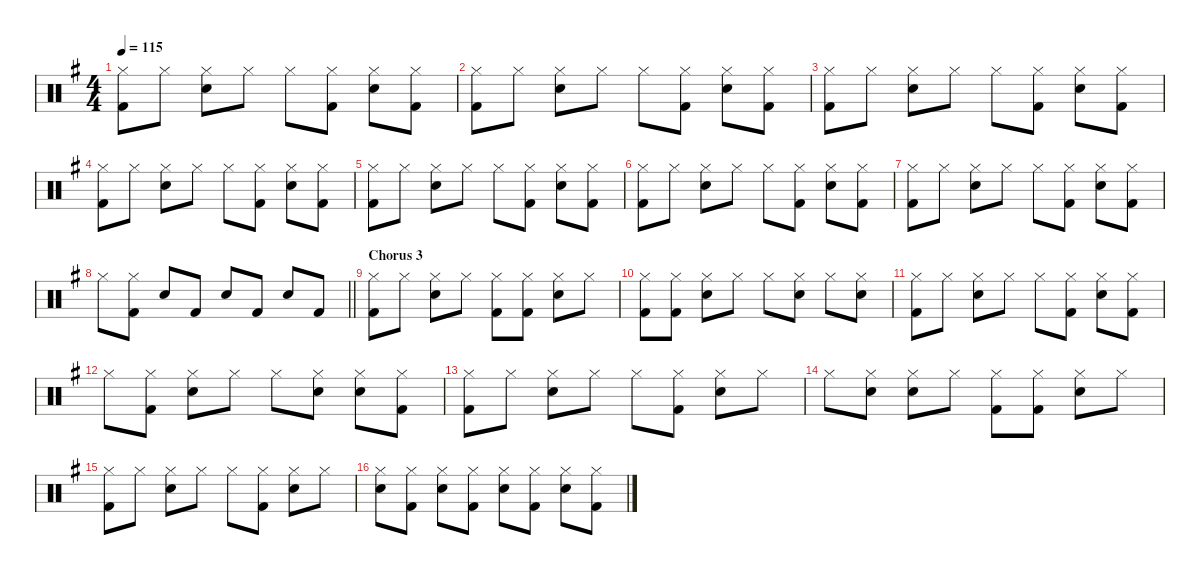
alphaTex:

\defaultSystemsLayout 8
\hideDynamics
\bracketExtendMode nobrackets
\singleTrackTrackNamePolicy hidden
\multiTrackTrackNamePolicy hidden
\otherSystemsTrackNameOrientation horizontal
\track ("Drums" "drm.") {defaultSystemsLayout 4 instrument percussion}
\staff {score}
\articulation defaults
\ts (4 4)
\tempo 115
\clef neutral
\ks g
("Hi-Hat (closed)"{acc forcenatural} "Kick (hit) 2"{acc forcenatural}).8{dy f beam Down} "Hi-Hat (closed)"{acc forcenatural}.8{beam Down} ("Hi-Hat (closed)"{acc forcenatural} "Snare (hit) 2"{acc forcenatural}).8{beam Down} "Hi-Hat (closed)"{acc forcenatural}.8{beam Down} "Hi-Hat (closed)"{acc forcenatural}.8{beam Down} ("Hi-Hat (closed)"{acc forcenatural} "Kick (hit) 2"{acc forcenatural}).8{beam Down} ("Hi-Hat (closed)"{acc forcenatural} "Snare (hit) 2"{acc forcenatural}).8{beam Down} ("Hi-Hat (closed)"{acc forcenatural} "Kick (hit) 2"{acc forcenatural}).8{beam Down} |
("Hi-Hat (closed)"{acc forcenatural} "Kick (hit) 2"{acc forcenatural}).8{beam Down} "Hi-Hat (closed)"{acc forcenatural}.8{beam Down} ("Hi-Hat (closed)"{acc forcenatural} "Snare (hit) 2"{acc forcenatural}).8{beam Down} "Hi-Hat (closed)"{acc forcenatural}.8{beam Down} "Hi-Hat (closed)"{acc forcenatural}.8{beam Down} ("Hi-Hat (closed)"{acc forcenatural} "Kick (hit) 2"{acc forcenatural}).8{beam Down} ("Hi-Hat (closed)"{acc forcenatural} "Snare (hit) 2"{acc forcenatural}).8{beam Down} ("Hi-Hat (closed)"{acc forcenatural} "Kick (hit) 2"{acc forcenatural}).8{beam Down} |
("Hi-Hat (closed)"{acc forcenatural} "Kick (hit) 2"{acc forcenatural}).8{beam Down} "Hi-Hat (closed)"{acc forcenatural}.8{beam Down} ("Hi-Hat (closed)"{acc forcenatural} "Snare (hit) 2"{acc forcenatural}).8{beam Down} "Hi-Hat (closed)"{acc forcenatural}.8{beam Down} "Hi-Hat (closed)"{acc forcenatural}.8{beam Down} ("Hi-Hat (closed)"{acc forcenatural} "Kick (hit) 2"{acc forcenatural}).8{beam Down} ("Hi-Hat (closed)"{acc forcenatural} "Snare (hit) 2"{acc forcenatural}).8{beam Down} ("Hi-Hat (closed)"{acc forcenatural} "Kick (hit) 2"{acc forcenatural}).8{beam Down} |
("Hi-Hat (closed)"{acc forcenatural} "Kick (hit) 2"{acc forcenatural}).8{beam Down} "Hi-Hat (closed)"{acc forcenatural}.8{beam Down} ("Hi-Hat (closed)"{acc forcenatural} "Snare (hit) 2"{acc forcenatural}).8{beam Down} "Hi-Hat (closed)"{acc forcenatural}.8{beam Down} "Hi-Hat (closed)"{acc forcenatural}.8{beam Down} ("Hi-Hat (closed)"{acc forcenatural} "Kick (hit) 2"{acc forcenatural}).8{beam Down} ("Hi-Hat (closed)"{acc forcenatural} "Snare (hit) 2"{acc forcenatural}).8{beam Down} ("Hi-Hat (closed)"{acc forcenatural} "Kick (hit) 2"{acc forcenatural}).8{beam Down} |
("Hi-Hat (closed)"{acc forcenatural} "Kick (hit) 2"{acc forcenatural}).8{beam Down} "Hi-Hat (closed)"{acc forcenatural}.8{beam Down} ("Hi-Hat (closed)"{acc forcenatural} "Snare (hit) 2"{acc forcenatural}).8{beam Down} "Hi-Hat (closed)"{acc forcenatural}.8{beam Down} "Hi-Hat (closed)"{acc forcenatural}.8{beam Down} ("Hi-Hat (closed)"{acc forcenatural} "Kick (hit) 2"{acc forcenatural}).8{beam Down} ("Hi-Hat (closed)"{acc forcenatural} "Snare (hit) 2"{acc forcenatural}).8{beam Down} ("Hi-Hat (closed)"{acc forcenatural} "Kick (hit) 2"{acc forcenatural}).8{beam Down} |
("Hi-Hat (closed)"{acc forcenatural} "Kick (hit) 2"{acc forcenatural}).8{beam Down} "Hi-Hat (closed)"{acc forcenatural}.8{beam Down} ("Hi-Hat (closed)"{acc forcenatural} "Snare (hit) 2"{acc forcenatural}).8{beam Down} "Hi-Hat (closed)"{acc forcenatural}.8{beam Down} "Hi-Hat (closed)"{acc forcenatural}.8{beam Down} ("Hi-Hat (closed)"{acc forcenatural} "Kick (hit) 2"{acc forcenatural}).8{beam Down} ("Hi-Hat (closed)"{acc forcenatural} "Snare (hit) 2"{acc forcenatural}).8{beam Down} ("Hi-Hat (closed)"{acc forcenatural} "Kick (hit) 2"{acc forcenatural}).8{beam Down} |
("Hi-Hat (closed)"{acc forcenatural} "Kick (hit) 2"{acc forcenatural}).8{beam Down} "Hi-Hat (closed)"{acc forcenatural}.8{beam Down} ("Hi-Hat (closed)"{acc forcenatural} "Snare (hit) 2"{acc forcenatural}).8{beam Down} "Hi-Hat (closed)"{acc forcenatural}.8{beam Down} "Hi-Hat (closed)"{acc forcenatural}.8{beam Down} ("Hi-Hat (closed)"{acc forcenatural} "Kick (hit) 2"{acc forcenatural}).8{beam Down} ("Hi-Hat (closed)"{acc forcenatural} "Snare (hit) 2"{acc forcenatural}).8{beam Down} ("Hi-Hat (closed)"{acc forcenatural} "Kick (hit) 2"{acc forcenatural}).8{beam Down} |
\barLineRight lightlight "Hi-Hat (closed)"{acc forcenatural}.8{beam Down}
("Hi-Hat (closed)"{acc forcenatural} "Kick (hit) 2"{acc forcenatural}).8{beam Down} "Snare (hit) 2"{acc forcenatural}.8{beam Up} "Kick (hit) 2"{acc forcenatural}.8{beam Up} "Snare (hit) 2"{acc forcenatural}.8{beam Up} "Kick (hit) 2"{acc forcenatural}.8{beam Up} "Snare (hit) 2"{acc forcenatural}.8{beam Up} "Kick (hit) 2"{acc forcenatural}.8{beam Up} |
\section ("" "Chorus 3")
("Hi-Hat (closed)"{acc forcenatural} "Kick (hit) 2"{acc forcenatural}).8{beam Down} "Hi-Hat (closed)"{acc forcenatural}.8{beam Down} ("Hi-Hat (closed)"{acc forcenatural} "Snare (hit) 2"{acc forcenatural}).8{beam Down} "Hi-Hat (closed)"{acc forcenatural}.8{beam Down} ("Hi-Hat (closed)"{acc forcenatural} "Kick (hit) 2"{acc forcenatural}).8{beam Down} ("Hi-Hat (closed)"{acc forcenatural} "Kick (hit) 2"{acc forcenatural}).8{beam Down} ("Hi-Hat (closed)"{acc forcenatural} "Snare (hit) 2"{acc forcenatural}).8{beam Down} "Hi-Hat (closed)"{acc forcenatural}.8{beam Down} |
("Hi-Hat (closed)"{acc forcenatural} "Kick (hit) 2"{acc forcenatural}).8{beam Down} ("Hi-Hat (closed)"{acc forcenatural} "Kick (hit) 2"{acc forcenatural}).8{beam Down} ("Hi-Hat (closed)"{acc forcenatural} "Snare (hit) 2"{acc forcenatural}).8{beam Down} "Hi-Hat (closed)"{acc forcenatural}.8{beam Down} "Hi-Hat (closed)"{acc forcenatural}.8{beam Down} ("Hi-Hat (closed)"{acc forcenatural} "Snare (hit) 2"{acc forcenatural}).8{beam Down} "Hi-Hat (closed)"{acc forcenatural}.8{beam Down} ("Hi-Hat (closed)"{acc forcenatural} "Snare (hit) 2"{acc forcenatural}).8{beam Down} |
("Hi-Hat (closed)"{acc forcenatural} "Kick (hit) 2"{acc forcenatural}).8{beam Down} "Hi-Hat (closed)"{acc forcenatural}.8{beam Down} ("Hi-Hat (closed)"{acc forcenatural} "Snare (hit) 2"{acc forcenatural}).8{beam Down} "Hi-Hat (closed)"{acc forcenatural}.8{beam Down} "Hi-Hat (closed)"{acc forcenatural}.8{beam Down} ("Hi-Hat (closed)"{acc forcenatural} "Kick (hit) 2"{acc forcenatural}).8{beam Down} ("Hi-Hat (closed)"{acc forcenatural} "Snare (hit) 2"{acc forcenatural}).8{beam Down} ("Hi-Hat (closed)"{acc forcenatural} "Kick (hit) 2"{acc forcenatural}).8{beam Down} |
"Hi-Hat (closed)"{acc forcenatural}.8{beam Down} ("Hi-Hat (closed)"{acc forcenatural} "Kick (hit) 2"{acc forcenatural}).8{beam Down} ("Hi-Hat (closed)"{acc forcenatural} "Snare (hit) 2"{acc forcenatural}).8{beam Down} "Hi-Hat (closed)"{acc forcenatural}.8{beam Down} "Hi-Hat (closed)"{acc forcenatural}.8{beam Down} ("Hi-Hat (closed)"{acc forcenatural} "Snare (hit) 2"{acc forcenatural}).8{beam Down} ("Hi-Hat (closed)"{acc forcenatural} "Snare (hit) 2"{acc forcenatural}).8{beam Down} ("Hi-Hat (closed)"{acc forcenatural} "Kick (hit) 2"{acc forcenatural}).8{beam Down} |
("Hi-Hat (closed)"{acc forcenatural} "Kick (hit) 2"{acc forcenatural}).8{beam Down} "Hi-Hat (closed)"{acc forcenatural}.8{beam Down} ("Hi-Hat (closed)"{acc forcenatural} "Snare (hit) 2"{acc forcenatural}).8{beam Down} "Hi-Hat (closed)"{acc forcenatural}.8{beam Down} "Hi-Hat (closed)"{acc forcenatural}.8{beam Down} ("Hi-Hat (closed)"{acc forcenatural} "Kick (hit) 2"{acc forcenatural}).8{beam Down} ("Hi-Hat (closed)"{acc forcenatural} "Snare (hit) 2"{acc forcenatural}).8{beam Down} "Hi-Hat (closed)"{acc forcenatural}.8{beam Down} |
"Hi-Hat (closed)"{acc forcenatural}.8{beam Down} ("Hi-Hat (closed)"{acc forcenatural} "Snare (hit) 2"{acc forcenatural}).8{beam Down} ("Hi-Hat (closed)"{acc forcenatural} "Snare (hit) 2"{acc forcenatural}).8{beam Down} "Hi-Hat (closed)"{acc forcenatural}.8{beam Down} ("Hi-Hat (closed)"{acc forcenatural} "Kick (hit) 2"{acc forcenatural}).8{beam Down} ("Hi-Hat (closed)"{acc forcenatural} "Kick (hit) 2"{acc forcenatural}).8{beam Down} ("Hi-Hat (closed)"{acc forcenatural} "Snare (hit) 2"{acc forcenatural}).8{beam Down} "Hi-Hat (closed)"{acc forcenatural}.8{beam Down} |
("Hi-Hat (closed)"{acc forcenatural} "Kick (hit) 2"{acc forcenatural}).8{beam Down} "Hi-Hat (closed)"{acc forcenatural}.8{beam Down} ("Hi-Hat (closed)"{acc forcenatural} "Snare (hit) 2"{acc forcenatural}).8{beam Down} "Hi-Hat (closed)"{acc forcenatural}.8{beam Down} "Hi-Hat (closed)"{acc forcenatural}.8{beam Down} ("Hi-Hat (closed)"{acc forcenatural} "Kick (hit) 2"{acc forcenatural}).8{beam Down} ("Hi-Hat (closed)"{acc forcenatural} "Snare (hit) 2"{acc forcenatural}).8{beam Down} "Hi-Hat (closed)"{acc forcenatural}.8{beam Down} |
("Hi-Hat (closed)"{acc forcenatural} "Snare (hit) 2"{acc forcenatural}).8{beam Down} ("Hi-Hat (closed)"{acc forcenatural} "Kick (hit) 2"{acc forcenatural}).8{beam Down} ("Hi-Hat (closed)"{acc forcenatural} "Snare (hit) 2"{acc forcenatural}).8{beam Down} ("Hi-Hat (closed)"{acc forcenatural} "Kick (hit) 2"{acc forcenatural}).8{beam Down} ("Hi-Hat (closed)"{acc forcenatural} "Snare (hit) 2"{acc forcenatural}).8{beam Down} ("Hi-Hat (closed)"{acc forcenatural} "Kick (hit) 2"{acc forcenatural}).8{beam Down} ("Hi-Hat (closed)"{acc forcenatural} "Snare (hit) 2"{acc forcenatural}).8{beam Down} ("Hi-Hat (closed)"{acc forcenatural} "Kick (hit) 2"{acc forcenatural}).8{beam Down}
